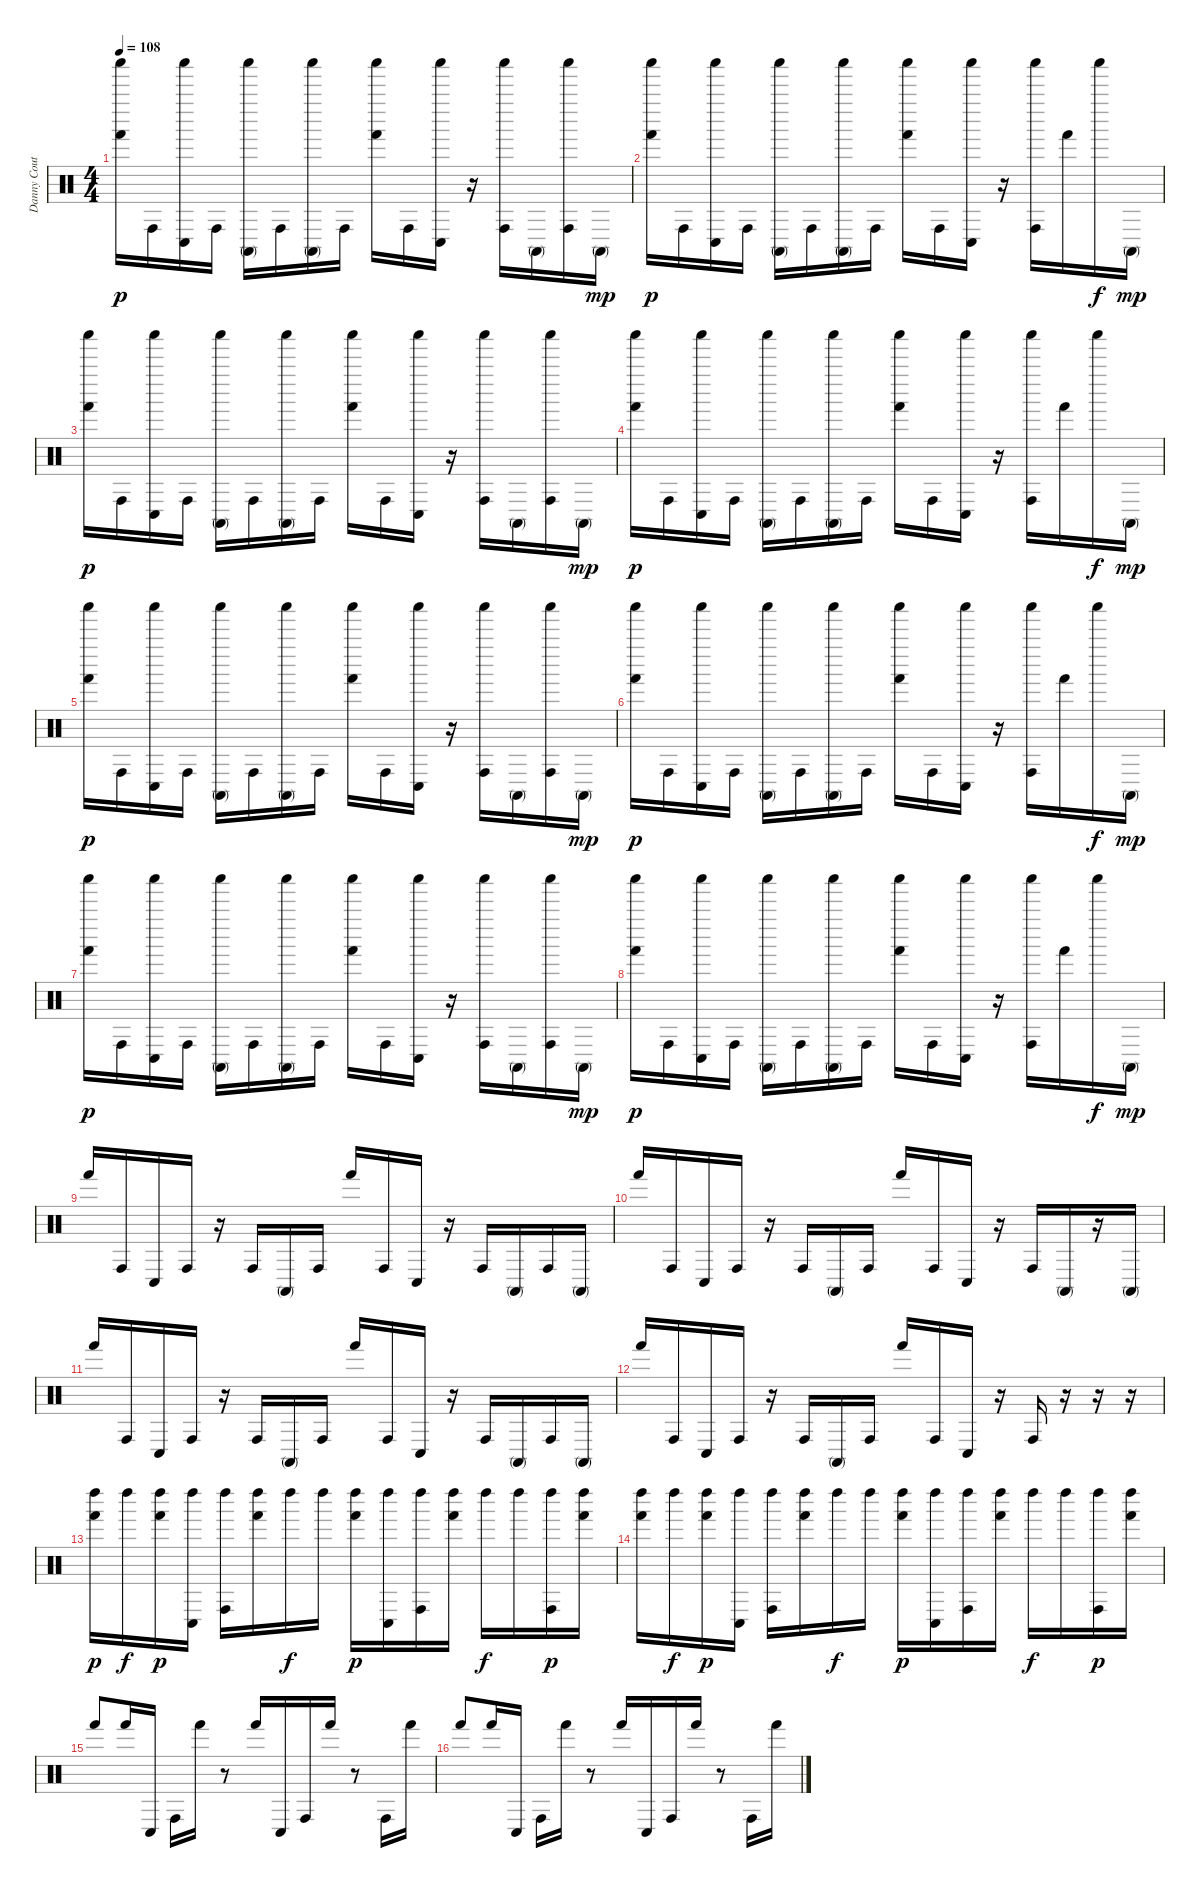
\track ("Danny Couto [Percussion]" "Danny Cout") {instrument percussion}
\staff {score}
\articulation defaults
\ts (4 4)
\tempo 108
\clef neutral
\ks c
("Shaker (hit)" "Hand (hit)").16{dy p} "Conga high (hit)".16 ("Shaker (hit)" "Conga low (hit)").16 "Conga high (hit)".16 ("Shaker (hit)" "Conga high (mute)").16 "Conga high (hit)".16 ("Shaker (hit)" "Conga high (mute)").16 "Conga high (hit)".16 ("Shaker (hit)" "Hand (hit)").16 "Conga high (hit)".16 ("Shaker (hit)" "Conga low (hit)").16 r.16 ("Shaker (hit)" "Conga high (hit)").16 "Conga high (mute)".16 ("Shaker (hit)" "Conga high (hit)").16 "Conga high (mute)".16{dy mp} |
("Shaker (hit)" "Hand (hit)").16{dy p} "Conga high (hit)".16 ("Shaker (hit)" "Conga low (hit)").16 "Conga high (hit)".16 ("Shaker (hit)" "Conga high (mute)").16 "Conga high (hit)".16 ("Shaker (hit)" "Conga high (mute)").16 "Conga high (hit)".16 ("Shaker (hit)" "Hand (hit)").16 "Conga high (hit)".16 ("Shaker (hit)" "Conga low (hit)").16 r.16 ("Shaker (hit)" "Conga high (hit)").16 "Hand (hit)".16 "Shaker (hit)".16{dy f} "Conga high (mute)".16{dy mp} |
("Shaker (hit)" "Hand (hit)").16{dy p} "Conga high (hit)".16 ("Shaker (hit)" "Conga low (hit)").16 "Conga high (hit)".16 ("Shaker (hit)" "Conga high (mute)").16 "Conga high (hit)".16 ("Shaker (hit)" "Conga high (mute)").16 "Conga high (hit)".16 ("Shaker (hit)" "Hand (hit)").16 "Conga high (hit)".16 ("Shaker (hit)" "Conga low (hit)").16 r.16 ("Shaker (hit)" "Conga high (hit)").16 "Conga high (mute)".16 ("Shaker (hit)" "Conga high (hit)").16 "Conga high (mute)".16{dy mp} |
("Shaker (hit)" "Hand (hit)").16{dy p} "Conga high (hit)".16 ("Shaker (hit)" "Conga low (hit)").16 "Conga high (hit)".16 ("Shaker (hit)" "Conga high (mute)").16 "Conga high (hit)".16 ("Shaker (hit)" "Conga high (mute)").16 "Conga high (hit)".16 ("Shaker (hit)" "Hand (hit)").16 "Conga high (hit)".16 ("Shaker (hit)" "Conga low (hit)").16 r.16 ("Shaker (hit)" "Conga high (hit)").16 "Hand (hit)".16 "Shaker (hit)".16{dy f} "Conga high (mute)".16{dy mp} |
("Shaker (hit)" "Hand (hit)").16{dy p} "Conga high (hit)".16 ("Shaker (hit)" "Conga low (hit)").16 "Conga high (hit)".16 ("Shaker (hit)" "Conga high (mute)").16 "Conga high (hit)".16 ("Shaker (hit)" "Conga high (mute)").16 "Conga high (hit)".16 ("Shaker (hit)" "Hand (hit)").16 "Conga high (hit)".16 ("Shaker (hit)" "Conga low (hit)").16 r.16 ("Shaker (hit)" "Conga high (hit)").16 "Conga high (mute)".16 ("Shaker (hit)" "Conga high (hit)").16 "Conga high (mute)".16{dy mp} |
("Shaker (hit)" "Hand (hit)").16{dy p} "Conga high (hit)".16 ("Shaker (hit)" "Conga low (hit)").16 "Conga high (hit)".16 ("Shaker (hit)" "Conga high (mute)").16 "Conga high (hit)".16 ("Shaker (hit)" "Conga high (mute)").16 "Conga high (hit)".16 ("Shaker (hit)" "Hand (hit)").16 "Conga high (hit)".16 ("Shaker (hit)" "Conga low (hit)").16 r.16 ("Shaker (hit)" "Conga high (hit)").16 "Hand (hit)".16 "Shaker (hit)".16{dy f} "Conga high (mute)".16{dy mp} |
("Shaker (hit)" "Hand (hit)").16{dy p} "Conga high (hit)".16 ("Shaker (hit)" "Conga low (hit)").16 "Conga high (hit)".16 ("Shaker (hit)" "Conga high (mute)").16 "Conga high (hit)".16 ("Shaker (hit)" "Conga high (mute)").16 "Conga high (hit)".16 ("Shaker (hit)" "Hand (hit)").16 "Conga high (hit)".16 ("Shaker (hit)" "Conga low (hit)").16 r.16 ("Shaker (hit)" "Conga high (hit)").16 "Conga high (mute)".16 ("Shaker (hit)" "Conga high (hit)").16 "Conga high (mute)".16{dy mp} |
("Shaker (hit)" "Hand (hit)").16{dy p} "Conga high (hit)".16 ("Shaker (hit)" "Conga low (hit)").16 "Conga high (hit)".16 ("Shaker (hit)" "Conga high (mute)").16 "Conga high (hit)".16 ("Shaker (hit)" "Conga high (mute)").16 "Conga high (hit)".16 ("Shaker (hit)" "Hand (hit)").16 "Conga high (hit)".16 ("Shaker (hit)" "Conga low (hit)").16 r.16 ("Shaker (hit)" "Conga high (hit)").16 "Hand (hit)".16 "Shaker (hit)".16{dy f} "Conga high (mute)".16{dy mp} |
"Hand (hit)".16 "Conga high (hit)".16 "Conga low (hit)".16 "Conga high (hit)".16 r.16 "Conga high (hit)".16 "Conga high (mute)".16 "Conga high (hit)".16 "Hand (hit)".16 "Conga high (hit)".16 "Conga low (hit)".16 r.16 "Conga high (hit)".16 "Conga high (mute)".16 "Conga high (hit)".16 "Conga high (mute)".16 |
"Hand (hit)".16 "Conga high (hit)".16 "Conga low (hit)".16 "Conga high (hit)".16 r.16 "Conga high (hit)".16 "Conga high (mute)".16 "Conga high (hit)".16 "Hand (hit)".16 "Conga high (hit)".16 "Conga low (hit)".16 r.16 "Conga high (hit)".16 "Conga high (mute)".16 r.16 "Conga high (mute)".16 |
"Hand (hit)".16 "Conga high (hit)".16 "Conga low (hit)".16 "Conga high (hit)".16 r.16 "Conga high (hit)".16 "Conga high (mute)".16 "Conga high (hit)".16 "Hand (hit)".16 "Conga high (hit)".16 "Conga low (hit)".16 r.16 "Conga high (hit)".16 "Conga high (mute)".16 "Conga high (hit)".16 "Conga high (mute)".16 |
"Hand (hit)".16 "Conga high (hit)".16 "Conga low (hit)".16 "Conga high (hit)".16 r.16 "Conga high (hit)".16 "Conga high (mute)".16 "Conga high (hit)".16 "Hand (hit)".16 "Conga high (hit)".16 "Conga low (hit)".16 r.16 "Conga high (hit)".16 r.16 r.16 r.16 |
("Left Maraca (hit)" "Hand (hit)").16{dy p} "Left Maraca (hit)".16{dy f} ("Left Maraca (hit)" "Hand (hit)").16{dy p} ("Left Maraca (hit)" "Conga low (hit)").16 ("Left Maraca (hit)" "Conga high (hit)").16 ("Left Maraca (hit)" "Hand (hit)").16 "Left Maraca (hit)".16{dy f} "Left Maraca (hit)".16 ("Left Maraca (hit)" "Hand (hit)").16{dy p} ("Left Maraca (hit)" "Conga low (hit)").16 ("Left Maraca (hit)" "Conga high (hit)").16 ("Left Maraca (hit)" "Hand (hit)").16 "Left Maraca (hit)".16{dy f} "Left Maraca (hit)".16 ("Left Maraca (hit)" "Conga high (hit)").16{dy p} ("Left Maraca (hit)" "Hand (hit)").16 |
("Left Maraca (hit)" "Hand (hit)").16 "Left Maraca (hit)".16{dy f} ("Left Maraca (hit)" "Hand (hit)").16{dy p} ("Left Maraca (hit)" "Conga low (hit)").16 ("Left Maraca (hit)" "Conga high (hit)").16 ("Left Maraca (hit)" "Hand (hit)").16 "Left Maraca (hit)".16{dy f} "Left Maraca (hit)".16 ("Left Maraca (hit)" "Hand (hit)").16{dy p} ("Left Maraca (hit)" "Conga low (hit)").16 ("Left Maraca (hit)" "Conga high (hit)").16 ("Left Maraca (hit)" "Hand (hit)").16 "Left Maraca (hit)".16{dy f} "Left Maraca (hit)".16 ("Left Maraca (hit)" "Conga high (hit)").16{dy p} ("Left Maraca (hit)" "Hand (hit)").16 |
"Hand (hit)".8 "Hand (hit)".16 "Conga low (hit)".16 "Conga high (hit)".16 "Hand (hit)".16 r.8 "Hand (hit)".16 "Conga low (hit)".16 "Conga high (hit)".16 "Hand (hit)".16 r.8 "Conga high (hit)".16 "Hand (hit)".16 |
"Hand (hit)".8 "Hand (hit)".16 "Conga low (hit)".16 "Conga high (hit)".16 "Hand (hit)".16 r.8 "Hand (hit)".16 "Conga low (hit)".16 "Conga high (hit)".16 "Hand (hit)".16 r.8 "Conga high (hit)".16 "Hand (hit)".16
